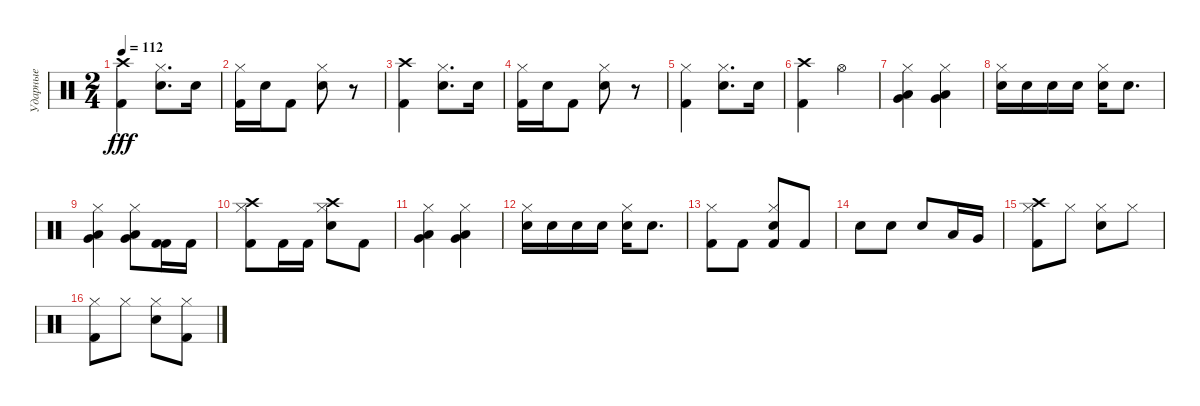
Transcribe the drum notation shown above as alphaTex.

\track ("Ударные" "Ударные") {instrument percussion}
\staff {score}
\articulation defaults
\ts (2 4)
\tempo 112
\clef neutral
\ks c
("Kick (hit) 2" "Crash high (hit)").4{dy fff} ("Hi-Hat (closed)" "Electric Snare (hit)").8{d} "Electric Snare (hit)".16 |
("Kick (hit) 2" "Hi-Hat (closed)").16 "Electric Snare (hit)".16 "Kick (hit) 2".8 ("Electric Snare (hit)" "Hi-Hat (closed)").8 r.8 |
("Kick (hit) 2" "Crash high (hit)").4 ("Hi-Hat (closed)" "Electric Snare (hit)").8{d} "Electric Snare (hit)".16 |
("Kick (hit) 2" "Hi-Hat (closed)").16 "Electric Snare (hit)".16 "Kick (hit) 2".8 ("Electric Snare (hit)" "Hi-Hat (closed)").8 r.8 |
("Kick (hit) 2" "Hi-Hat (closed)").4 ("Hi-Hat (closed)" "Electric Snare (hit)").8{d} "Electric Snare (hit)".16 |
("Kick (hit) 2" "Crash high (hit)").4 "Hi-Hat (open)".4 |
("Hi-Hat (closed)" "Low Floor Tom (hit)" "Very Low Tom (hit)").4 ("Low Floor Tom (hit)" "Very Low Tom (hit)" "Hi-Hat (closed)").4 |
("Electric Snare (hit)" "Hi-Hat (closed)").16 "Electric Snare (hit)".16 "Electric Snare (hit)".16 "Electric Snare (hit)".16 ("Hi-Hat (closed)" "Electric Snare (hit)").16 "Electric Snare (hit)".8{d} |
("Low Floor Tom (hit)" "Very Low Tom (hit)" "Hi-Hat (closed)").4 ("Low Floor Tom (hit)" "Very Low Tom (hit)" "Hi-Hat (closed)").8 ("Kick (hit) 2" "Kick (hit) 2").16 "Kick (hit) 2".16 |
("Hi-Hat (closed)" "Crash high (hit)" "Kick (hit) 2").8 "Kick (hit) 2".16 "Kick (hit) 2".16 ("Electric Snare (hit)" "Hi-Hat (closed)" "Crash high (hit)").8 "Kick (hit) 2".8 |
("Hi-Hat (closed)" "Very Low Tom (hit)" "Low Floor Tom (hit)").4 ("Low Floor Tom (hit)" "Very Low Tom (hit)" "Hi-Hat (closed)").4 |
("Hi-Hat (closed)" "Electric Snare (hit)").16 "Electric Snare (hit)".16 "Electric Snare (hit)".16 "Electric Snare (hit)".16 ("Electric Snare (hit)" "Hi-Hat (closed)").16 "Electric Snare (hit)".8{d} |
("Kick (hit) 2" "Hi-Hat (closed)").8 "Kick (hit) 2".8 ("Electric Snare (hit)" "Hi-Hat (closed)" "Kick (hit) 2").8 "Kick (hit) 2".8 |
"Electric Snare (hit)".8 "Electric Snare (hit)".8 "Electric Snare (hit)".8 "Low Tom (hit)".16 "Very Low Tom (hit)".16 |
("Kick (hit) 2" "Crash high (hit)" "Hi-Hat (closed)").8 "Hi-Hat (closed)".8 ("Electric Snare (hit)" "Hi-Hat (closed)").8 "Hi-Hat (closed)".8 |
("Kick (hit) 2" "Hi-Hat (closed)").8 "Hi-Hat (closed)".8 ("Electric Snare (hit)" "Hi-Hat (closed)").8 ("Hi-Hat (closed)" "Kick (hit) 2").8
